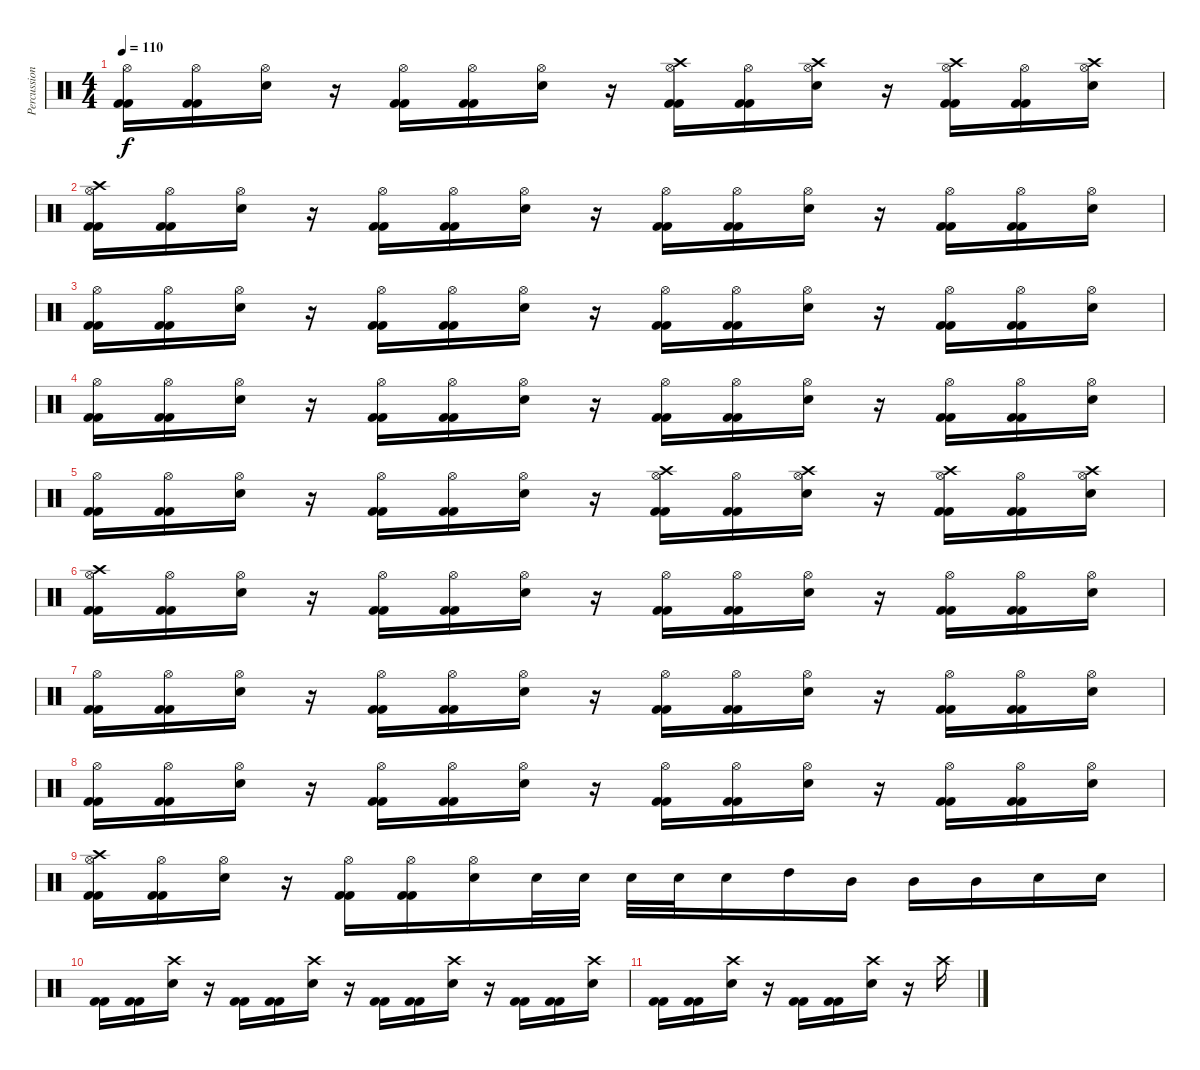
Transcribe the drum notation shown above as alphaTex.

\track ("Percussions" "Percussion") {instrument percussion}
\staff {score}
\articulation defaults
\ts (4 4)
\tempo 110
\clef neutral
\ks c
("Hi-Hat (open)" "Kick (hit) 2" "Kick (hit) 2").16{dy f} ("Hi-Hat (open)" "Kick (hit) 2" "Kick (hit) 2").16 ("Hi-Hat (open)" "Snare (hit) 2").16 r.16 ("Hi-Hat (open)" "Kick (hit) 2" "Kick (hit) 2").16 ("Hi-Hat (open)" "Kick (hit) 2" "Kick (hit) 2").16 ("Hi-Hat (open)" "Snare (hit) 2").16 r.16 ("Crash high (hit)" "Hi-Hat (open)" "Kick (hit) 2" "Kick (hit) 2").16 ("Hi-Hat (open)" "Kick (hit) 2" "Kick (hit) 2").16 ("Crash high (hit)" "Hi-Hat (open)" "Snare (hit) 2").16 r.16 ("Crash high (hit)" "Hi-Hat (open)" "Kick (hit) 2" "Kick (hit) 2").16 ("Hi-Hat (open)" "Kick (hit) 2" "Kick (hit) 2").16 ("Crash high (hit)" "Hi-Hat (open)" "Snare (hit) 2").16 |
("Crash high (hit)" "Hi-Hat (open)" "Kick (hit) 2" "Kick (hit) 2").16 ("Hi-Hat (open)" "Kick (hit) 2" "Kick (hit) 2").16 ("Hi-Hat (open)" "Snare (hit) 2").16 r.16 ("Hi-Hat (open)" "Kick (hit) 2" "Kick (hit) 2").16 ("Hi-Hat (open)" "Kick (hit) 2" "Kick (hit) 2").16 ("Hi-Hat (open)" "Snare (hit) 2").16 r.16 ("Hi-Hat (open)" "Kick (hit) 2" "Kick (hit) 2").16 ("Hi-Hat (open)" "Kick (hit) 2" "Kick (hit) 2").16 ("Hi-Hat (open)" "Snare (hit) 2").16 r.16 ("Hi-Hat (open)" "Kick (hit) 2" "Kick (hit) 2").16 ("Hi-Hat (open)" "Kick (hit) 2" "Kick (hit) 2").16 ("Hi-Hat (open)" "Snare (hit) 2").16 |
("Hi-Hat (open)" "Kick (hit) 2" "Kick (hit) 2").16 ("Hi-Hat (open)" "Kick (hit) 2" "Kick (hit) 2").16 ("Hi-Hat (open)" "Snare (hit) 2").16 r.16 ("Hi-Hat (open)" "Kick (hit) 2" "Kick (hit) 2").16 ("Hi-Hat (open)" "Kick (hit) 2" "Kick (hit) 2").16 ("Hi-Hat (open)" "Snare (hit) 2").16 r.16 ("Hi-Hat (open)" "Kick (hit) 2" "Kick (hit) 2").16 ("Hi-Hat (open)" "Kick (hit) 2" "Kick (hit) 2").16 ("Hi-Hat (open)" "Snare (hit) 2").16 r.16 ("Hi-Hat (open)" "Kick (hit) 2" "Kick (hit) 2").16 ("Hi-Hat (open)" "Kick (hit) 2" "Kick (hit) 2").16 ("Hi-Hat (open)" "Snare (hit) 2").16 |
("Hi-Hat (open)" "Kick (hit) 2" "Kick (hit) 2").16 ("Hi-Hat (open)" "Kick (hit) 2" "Kick (hit) 2").16 ("Hi-Hat (open)" "Snare (hit) 2").16 r.16 ("Hi-Hat (open)" "Kick (hit) 2" "Kick (hit) 2").16 ("Hi-Hat (open)" "Kick (hit) 2" "Kick (hit) 2").16 ("Hi-Hat (open)" "Snare (hit) 2").16 r.16 ("Hi-Hat (open)" "Kick (hit) 2" "Kick (hit) 2").16 ("Hi-Hat (open)" "Kick (hit) 2" "Kick (hit) 2").16 ("Hi-Hat (open)" "Snare (hit) 2").16 r.16 ("Hi-Hat (open)" "Kick (hit) 2" "Kick (hit) 2").16 ("Hi-Hat (open)" "Kick (hit) 2" "Kick (hit) 2").16 ("Hi-Hat (open)" "Snare (hit) 2").16 |
("Hi-Hat (open)" "Kick (hit) 2" "Kick (hit) 2").16 ("Hi-Hat (open)" "Kick (hit) 2" "Kick (hit) 2").16 ("Hi-Hat (open)" "Snare (hit) 2").16 r.16 ("Hi-Hat (open)" "Kick (hit) 2" "Kick (hit) 2").16 ("Hi-Hat (open)" "Kick (hit) 2" "Kick (hit) 2").16 ("Hi-Hat (open)" "Snare (hit) 2").16 r.16 ("Crash high (hit)" "Hi-Hat (open)" "Kick (hit) 2" "Kick (hit) 2").16 ("Hi-Hat (open)" "Kick (hit) 2" "Kick (hit) 2").16 ("Crash high (hit)" "Hi-Hat (open)" "Snare (hit) 2").16 r.16 ("Crash high (hit)" "Hi-Hat (open)" "Kick (hit) 2" "Kick (hit) 2").16 ("Hi-Hat (open)" "Kick (hit) 2" "Kick (hit) 2").16 ("Crash high (hit)" "Hi-Hat (open)" "Snare (hit) 2").16 |
("Crash high (hit)" "Hi-Hat (open)" "Kick (hit) 2" "Kick (hit) 2").16 ("Hi-Hat (open)" "Kick (hit) 2" "Kick (hit) 2").16 ("Hi-Hat (open)" "Snare (hit) 2").16 r.16 ("Hi-Hat (open)" "Kick (hit) 2" "Kick (hit) 2").16 ("Hi-Hat (open)" "Kick (hit) 2" "Kick (hit) 2").16 ("Hi-Hat (open)" "Snare (hit) 2").16 r.16 ("Hi-Hat (open)" "Kick (hit) 2" "Kick (hit) 2").16 ("Hi-Hat (open)" "Kick (hit) 2" "Kick (hit) 2").16 ("Hi-Hat (open)" "Snare (hit) 2").16 r.16 ("Hi-Hat (open)" "Kick (hit) 2" "Kick (hit) 2").16 ("Hi-Hat (open)" "Kick (hit) 2" "Kick (hit) 2").16 ("Hi-Hat (open)" "Snare (hit) 2").16 |
("Hi-Hat (open)" "Kick (hit) 2" "Kick (hit) 2").16 ("Hi-Hat (open)" "Kick (hit) 2" "Kick (hit) 2").16 ("Hi-Hat (open)" "Snare (hit) 2").16 r.16 ("Hi-Hat (open)" "Kick (hit) 2" "Kick (hit) 2").16 ("Hi-Hat (open)" "Kick (hit) 2" "Kick (hit) 2").16 ("Hi-Hat (open)" "Snare (hit) 2").16 r.16 ("Hi-Hat (open)" "Kick (hit) 2" "Kick (hit) 2").16 ("Hi-Hat (open)" "Kick (hit) 2" "Kick (hit) 2").16 ("Hi-Hat (open)" "Snare (hit) 2").16 r.16 ("Hi-Hat (open)" "Kick (hit) 2" "Kick (hit) 2").16 ("Hi-Hat (open)" "Kick (hit) 2" "Kick (hit) 2").16 ("Hi-Hat (open)" "Snare (hit) 2").16 |
("Hi-Hat (open)" "Kick (hit) 2" "Kick (hit) 2").16 ("Hi-Hat (open)" "Kick (hit) 2" "Kick (hit) 2").16 ("Hi-Hat (open)" "Snare (hit) 2").16 r.16 ("Hi-Hat (open)" "Kick (hit) 2" "Kick (hit) 2").16 ("Hi-Hat (open)" "Kick (hit) 2" "Kick (hit) 2").16 ("Hi-Hat (open)" "Snare (hit) 2").16 r.16 ("Hi-Hat (open)" "Kick (hit) 2" "Kick (hit) 2").16 ("Hi-Hat (open)" "Kick (hit) 2" "Kick (hit) 2").16 ("Hi-Hat (open)" "Snare (hit) 2").16 r.16 ("Hi-Hat (open)" "Kick (hit) 2" "Kick (hit) 2").16 ("Hi-Hat (open)" "Kick (hit) 2" "Kick (hit) 2").16 ("Hi-Hat (open)" "Snare (hit) 2").16 |
("Crash high (hit)" "Hi-Hat (open)" "Kick (hit) 2" "Kick (hit) 2").16 ("Hi-Hat (open)" "Kick (hit) 2" "Kick (hit) 2").16 ("Hi-Hat (open)" "Snare (hit) 2").16 r.16 ("Hi-Hat (open)" "Kick (hit) 2" "Kick (hit) 2").16 ("Hi-Hat (open)" "Kick (hit) 2" "Kick (hit) 2").16 ("Hi-Hat (open)" "Snare (hit) 2").16 "Snare (hit) 2".32 "Snare (hit) 2".32 "Snare (hit) 2".32 "Snare (hit) 2".32 "Snare (hit) 2".16 "High Tom (hit)".16 "Mid Tom (hit)".16 "Mid Tom (hit)".16 "Mid Tom (hit)".16 "Snare (hit) 2".16 "Snare (hit) 2".16 |
("Kick (hit) 2" "Kick (hit) 2").16 ("Kick (hit) 2" "Kick (hit) 2").16 ("Crash high (hit)" "Snare (hit) 2").16 r.16 ("Kick (hit) 2" "Kick (hit) 2").16 ("Kick (hit) 2" "Kick (hit) 2").16 ("Crash high (hit)" "Snare (hit) 2").16 r.16 ("Kick (hit) 2" "Kick (hit) 2").16 ("Kick (hit) 2" "Kick (hit) 2").16 ("Crash high (hit)" "Snare (hit) 2").16 r.16 ("Kick (hit) 2" "Kick (hit) 2").16 ("Kick (hit) 2" "Kick (hit) 2").16 ("Crash high (hit)" "Snare (hit) 2").16 |
("Kick (hit) 2" "Kick (hit) 2").16 ("Kick (hit) 2" "Kick (hit) 2").16 ("Crash high (hit)" "Snare (hit) 2").16 r.16 ("Kick (hit) 2" "Kick (hit) 2").16 ("Kick (hit) 2" "Kick (hit) 2").16 ("Crash high (hit)" "Snare (hit) 2").16 r.16 "Crash high (hit)".16
